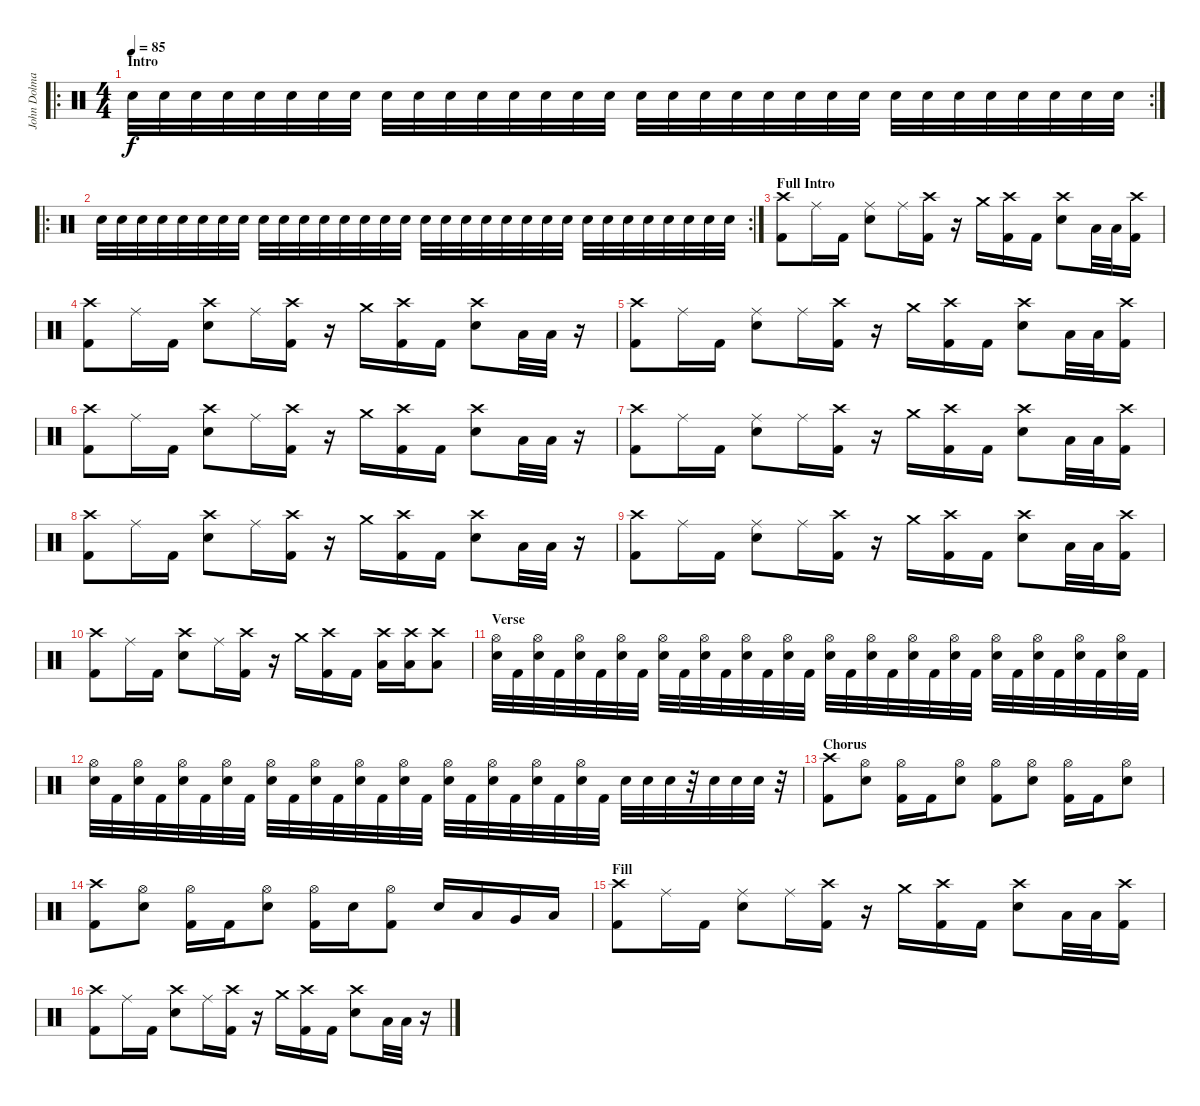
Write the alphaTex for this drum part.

\track ("John Dolmayan" "John Dolma") {instrument percussion}
\staff {score}
\articulation defaults
\ro
\rc 2
\ts (4 4)
\section ("" "Intro")
\tempo 85
\clef neutral
\ks c "Snare (hit) 2".32{dy f} "Snare (hit) 2".32 "Snare (hit) 2".32 "Snare (hit) 2".32 "Snare (hit) 2".32 "Snare (hit) 2".32 "Snare (hit) 2".32 "Snare (hit) 2".32 "Snare (hit) 2".32 "Snare (hit) 2".32 "Snare (hit) 2".32 "Snare (hit) 2".32 "Snare (hit) 2".32 "Snare (hit) 2".32 "Snare (hit) 2".32 "Snare (hit) 2".32 "Snare (hit) 2".32 "Snare (hit) 2".32 "Snare (hit) 2".32 "Snare (hit) 2".32 "Snare (hit) 2".32 "Snare (hit) 2".32 "Snare (hit) 2".32 "Snare (hit) 2".32 "Snare (hit) 2".32 "Snare (hit) 2".32 "Snare (hit) 2".32 "Snare (hit) 2".32 "Snare (hit) 2".32 "Snare (hit) 2".32 "Snare (hit) 2".32 "Snare (hit) 2".32
|
\ro
\rc 2 "Snare (hit) 2".32 "Snare (hit) 2".32 "Snare (hit) 2".32 "Snare (hit) 2".32 "Snare (hit) 2".32 "Snare (hit) 2".32 "Snare (hit) 2".32 "Snare (hit) 2".32 "Snare (hit) 2".32 "Snare (hit) 2".32 "Snare (hit) 2".32 "Snare (hit) 2".32 "Snare (hit) 2".32 "Snare (hit) 2".32 "Snare (hit) 2".32 "Snare (hit) 2".32 "Snare (hit) 2".32 "Snare (hit) 2".32 "Snare (hit) 2".32 "Snare (hit) 2".32 "Snare (hit) 2".32 "Snare (hit) 2".32 "Snare (hit) 2".32 "Snare (hit) 2".32 "Snare (hit) 2".32 "Snare (hit) 2".32 "Snare (hit) 2".32 "Snare (hit) 2".32 "Snare (hit) 2".32 "Snare (hit) 2".32 "Snare (hit) 2".32 "Snare (hit) 2".32
|
\section ("" "Full Intro")
("Crash high (hit)" "Kick (hit) 2").8 "Ride (middle)".16 "Kick (hit) 2".16 ("Ride (middle)" "Snare (hit) 2").8 "Ride (middle)".16 ("Crash high (hit)" "Kick (hit) 2").16 r.16 "Crash medium (hit)".16 ("Crash high (hit)" "Kick (hit) 2").16 "Kick (hit) 2".16 ("Crash high (hit)" "Snare (hit) 2").8 "Low Tom (hit)".32 "Low Tom (hit)".32 ("Crash high (hit)" "Kick (hit) 2").16 |
("Crash high (hit)" "Kick (hit) 2").8 "Ride (middle)".16 "Kick (hit) 2".16 ("Crash high (hit)" "Snare (hit) 2").8 "Ride (middle)".16 ("Crash high (hit)" "Kick (hit) 2").16 r.16 "Crash medium (hit)".16 ("Crash high (hit)" "Kick (hit) 2").16 "Kick (hit) 2".16 ("Crash high (hit)" "Snare (hit) 2").8 "Low Floor Tom (hit)".32 "Low Floor Tom (hit)".32 r.16 |
("Crash high (hit)" "Kick (hit) 2").8 "Ride (middle)".16 "Kick (hit) 2".16 ("Ride (middle)" "Snare (hit) 2").8 "Ride (middle)".16 ("Crash high (hit)" "Kick (hit) 2").16 r.16 "Crash medium (hit)".16 ("Crash high (hit)" "Kick (hit) 2").16 "Kick (hit) 2".16 ("Crash high (hit)" "Snare (hit) 2").8 "Low Tom (hit)".32 "Low Tom (hit)".32 ("Crash high (hit)" "Kick (hit) 2").16 |
("Crash high (hit)" "Kick (hit) 2").8 "Ride (middle)".16 "Kick (hit) 2".16 ("Crash high (hit)" "Snare (hit) 2").8 "Ride (middle)".16 ("Crash high (hit)" "Kick (hit) 2").16 r.16 "Crash medium (hit)".16 ("Crash high (hit)" "Kick (hit) 2").16 "Kick (hit) 2".16 ("Crash high (hit)" "Snare (hit) 2").8 "Low Floor Tom (hit)".32 "Low Floor Tom (hit)".32 r.16 |
("Crash high (hit)" "Kick (hit) 2").8 "Ride (middle)".16 "Kick (hit) 2".16 ("Ride (middle)" "Snare (hit) 2").8 "Ride (middle)".16 ("Crash high (hit)" "Kick (hit) 2").16 r.16 "Crash medium (hit)".16 ("Crash high (hit)" "Kick (hit) 2").16 "Kick (hit) 2".16 ("Crash high (hit)" "Snare (hit) 2").8 "Low Tom (hit)".32 "Low Tom (hit)".32 ("Crash high (hit)" "Kick (hit) 2").16 |
("Crash high (hit)" "Kick (hit) 2").8 "Ride (middle)".16 "Kick (hit) 2".16 ("Crash high (hit)" "Snare (hit) 2").8 "Ride (middle)".16 ("Crash high (hit)" "Kick (hit) 2").16 r.16 "Crash medium (hit)".16 ("Crash high (hit)" "Kick (hit) 2").16 "Kick (hit) 2".16 ("Crash high (hit)" "Snare (hit) 2").8 "Low Floor Tom (hit)".32 "Low Floor Tom (hit)".32 r.16 |
("Crash high (hit)" "Kick (hit) 2").8 "Ride (middle)".16 "Kick (hit) 2".16 ("Ride (middle)" "Snare (hit) 2").8 "Ride (middle)".16 ("Crash high (hit)" "Kick (hit) 2").16 r.16 "Crash medium (hit)".16 ("Crash high (hit)" "Kick (hit) 2").16 "Kick (hit) 2".16 ("Crash high (hit)" "Snare (hit) 2").8 "Low Tom (hit)".32 "Low Tom (hit)".32 ("Crash high (hit)" "Kick (hit) 2").16 |
("Crash high (hit)" "Kick (hit) 2").8 "Ride (middle)".16 "Kick (hit) 2".16 ("Crash high (hit)" "Snare (hit) 2").8 "Ride (middle)".16 ("Crash high (hit)" "Kick (hit) 2").16 r.16 "Crash medium (hit)".16 ("Crash high (hit)" "Kick (hit) 2").16 "Kick (hit) 2".16 ("Crash high (hit)" "Low Floor Tom (hit)").16 ("Crash high (hit)" "Low Floor Tom (hit)").16 ("Crash high (hit)" "Low Floor Tom (hit)").8 |
\section ("" "Verse")
("Hi-Hat (open)" "Snare (hit) 2").32 "Kick (hit) 2".32 ("Hi-Hat (open)" "Snare (hit) 2").32 "Kick (hit) 2".32 ("Hi-Hat (open)" "Snare (hit) 2").32 "Kick (hit) 2".32 ("Hi-Hat (open)" "Snare (hit) 2").32 "Kick (hit) 2".32 ("Hi-Hat (open)" "Snare (hit) 2").32 "Kick (hit) 2".32 ("Hi-Hat (open)" "Snare (hit) 2").32 "Kick (hit) 2".32 ("Hi-Hat (open)" "Snare (hit) 2").32 "Kick (hit) 2".32 ("Hi-Hat (open)" "Snare (hit) 2").32 "Kick (hit) 2".32 ("Hi-Hat (open)" "Snare (hit) 2").32 "Kick (hit) 2".32 ("Hi-Hat (open)" "Snare (hit) 2").32 "Kick (hit) 2".32 ("Hi-Hat (open)" "Snare (hit) 2").32 "Kick (hit) 2".32 ("Hi-Hat (open)" "Snare (hit) 2").32 "Kick (hit) 2".32 ("Hi-Hat (open)" "Snare (hit) 2").32 "Kick (hit) 2".32 ("Hi-Hat (open)" "Snare (hit) 2").32 "Kick (hit) 2".32 ("Hi-Hat (open)" "Snare (hit) 2").32 "Kick (hit) 2".32 ("Hi-Hat (open)" "Snare (hit) 2").32 "Kick (hit) 2".32 |
("Hi-Hat (open)" "Snare (hit) 2").32 "Kick (hit) 2".32 ("Hi-Hat (open)" "Snare (hit) 2").32 "Kick (hit) 2".32 ("Hi-Hat (open)" "Snare (hit) 2").32 "Kick (hit) 2".32 ("Hi-Hat (open)" "Snare (hit) 2").32 "Kick (hit) 2".32 ("Hi-Hat (open)" "Snare (hit) 2").32 "Kick (hit) 2".32 ("Hi-Hat (open)" "Snare (hit) 2").32 "Kick (hit) 2".32 ("Hi-Hat (open)" "Snare (hit) 2").32 "Kick (hit) 2".32 ("Hi-Hat (open)" "Snare (hit) 2").32 "Kick (hit) 2".32 ("Hi-Hat (open)" "Snare (hit) 2").32 "Kick (hit) 2".32 ("Hi-Hat (open)" "Snare (hit) 2").32 "Kick (hit) 2".32 ("Hi-Hat (open)" "Snare (hit) 2").32 "Kick (hit) 2".32 ("Hi-Hat (open)" "Snare (hit) 2").32 "Kick (hit) 2".32 "Snare (hit) 2".32 "Snare (hit) 2".32 "Snare (hit) 2".32 r.32 "Snare (hit) 2".32 "Snare (hit) 2".32 "Snare (hit) 2".32 r.32 |
\section ("" "Chorus")
("Crash high (hit)" "Kick (hit) 2").8 ("Hi-Hat (open)" "Snare (hit) 2").8 ("Hi-Hat (open)" "Kick (hit) 2").16 "Kick (hit) 2".16 ("Hi-Hat (open)" "Snare (hit) 2").8 ("Hi-Hat (open)" "Kick (hit) 2").8 ("Hi-Hat (open)" "Snare (hit) 2").8 ("Hi-Hat (open)" "Kick (hit) 2").16 "Kick (hit) 2".16 ("Hi-Hat (open)" "Snare (hit) 2").8 |
("Crash high (hit)" "Kick (hit) 2").8 ("Hi-Hat (open)" "Snare (hit) 2").8 ("Hi-Hat (open)" "Kick (hit) 2").16 "Kick (hit) 2".16 ("Hi-Hat (open)" "Snare (hit) 2").8 ("Hi-Hat (open)" "Kick (hit) 2").16 "Snare (hit) 2".16 ("Hi-Hat (open)" "Kick (hit) 2").8 "Snare (hit) 2".16 "Low Tom (hit)".16 "Very Low Tom (hit)".16 "Low Floor Tom (hit)".16 |
\section ("" "Fill")
("Crash high (hit)" "Kick (hit) 2").8 "Ride (middle)".16 "Kick (hit) 2".16 ("Ride (middle)" "Snare (hit) 2").8 "Ride (middle)".16 ("Crash high (hit)" "Kick (hit) 2").16 r.16 "Crash medium (hit)".16 ("Crash high (hit)" "Kick (hit) 2").16 "Kick (hit) 2".16 ("Crash high (hit)" "Snare (hit) 2").8 "Low Tom (hit)".32 "Low Tom (hit)".32 ("Crash high (hit)" "Kick (hit) 2").16 |
("Crash high (hit)" "Kick (hit) 2").8 "Ride (middle)".16 "Kick (hit) 2".16 ("Crash high (hit)" "Snare (hit) 2").8 "Ride (middle)".16 ("Crash high (hit)" "Kick (hit) 2").16 r.16 "Crash medium (hit)".16 ("Crash high (hit)" "Kick (hit) 2").16 "Kick (hit) 2".16 ("Crash high (hit)" "Snare (hit) 2").8 "Low Floor Tom (hit)".32 "Low Floor Tom (hit)".32 r.16
